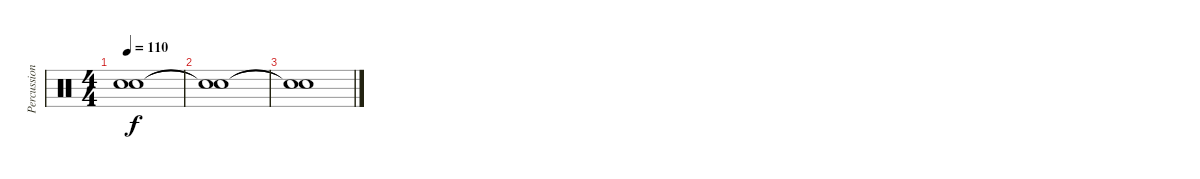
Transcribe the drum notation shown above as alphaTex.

\track ("Percussion" "Percussion") {instrument percussion}
\staff {score}
\articulation defaults
\ts (4 4)
\tempo 110
\clef neutral
\ks c
("Snare (hit)"{t} "Snare (hit)"{t}).1{dy f} |
("Snare (hit)"{t} "Snare (hit)"{t}).1 |
("Snare (hit)"{t} "Snare (hit)"{t}).1
